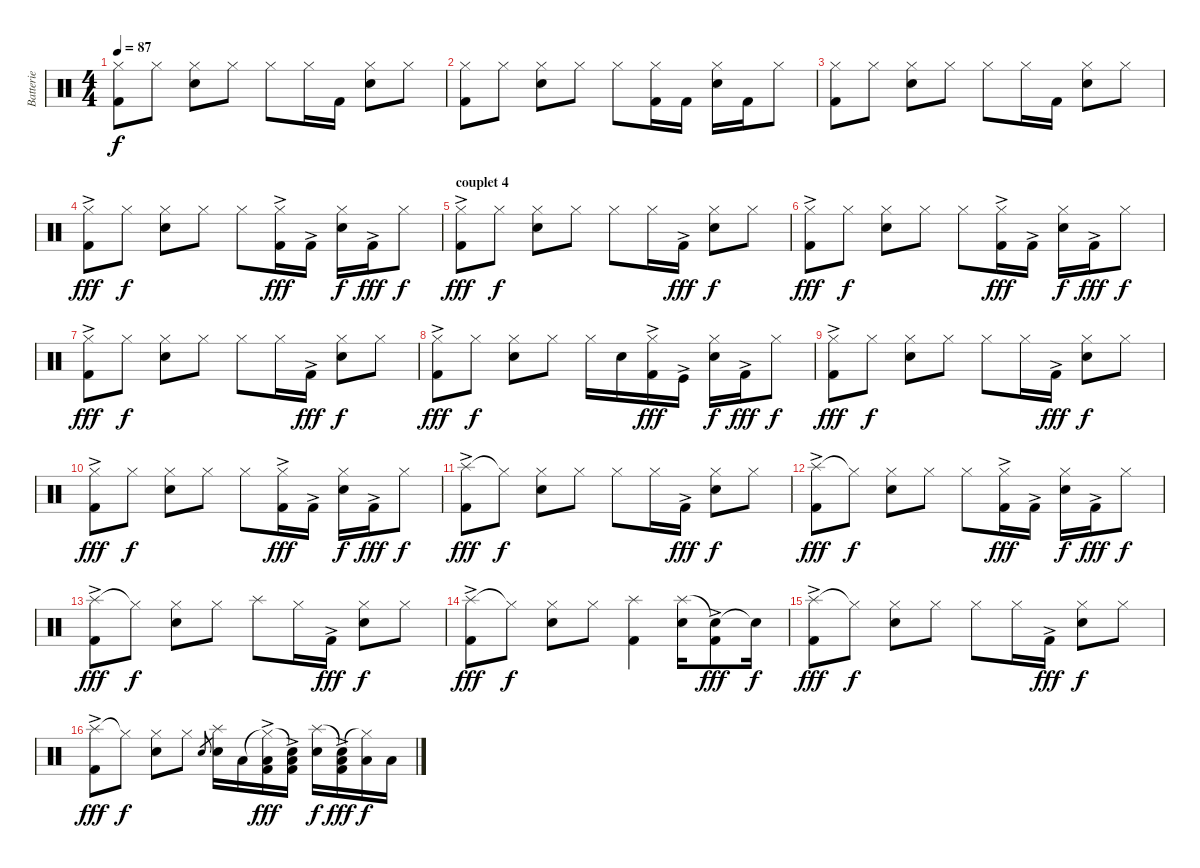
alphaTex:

\track ("Batterie" "Batterie") {instrument percussion}
\staff {score}
\articulation defaults
\ts (4 4)
\tempo 87
\clef neutral
\ks c
("Hi-Hat (closed)" "Kick (hit) 2").8{dy f} "Hi-Hat (closed)".8 ("Hi-Hat (closed)" "Snare (hit) 2").8 "Hi-Hat (closed)".8 "Hi-Hat (closed)".8 "Hi-Hat (closed)".16 "Kick (hit) 2".16 ("Hi-Hat (closed)" "Snare (hit) 2").8 "Hi-Hat (closed)".8 |
("Hi-Hat (closed)" "Kick (hit) 2").8 "Hi-Hat (closed)".8 ("Hi-Hat (closed)" "Snare (hit) 2").8 "Hi-Hat (closed)".8 "Hi-Hat (closed)".8 ("Hi-Hat (closed)" "Kick (hit) 2").16 "Kick (hit) 2".16 ("Hi-Hat (closed)" "Snare (hit) 2").16 "Kick (hit) 2".16 "Hi-Hat (closed)".8 |
("Hi-Hat (closed)" "Kick (hit) 2").8 "Hi-Hat (closed)".8 ("Hi-Hat (closed)" "Snare (hit) 2").8 "Hi-Hat (closed)".8 "Hi-Hat (closed)".8 "Hi-Hat (closed)".16 "Kick (hit) 2".16 ("Hi-Hat (closed)" "Snare (hit) 2").8 "Hi-Hat (closed)".8 |
("Hi-Hat (closed)" "Kick (hit) 2"{ac}).8{dy fff} "Hi-Hat (closed)".8{dy f} ("Hi-Hat (closed)" "Snare (hit) 2").8 "Hi-Hat (closed)".8 "Hi-Hat (closed)".8 ("Hi-Hat (closed)" "Kick (hit) 2"{ac}).16{dy fff} "Kick (hit) 2"{ac}.16 ("Hi-Hat (closed)" "Snare (hit) 2").16{dy f} "Kick (hit) 2"{ac}.16{dy fff} "Hi-Hat (closed)".8{dy f} |
\section ("" "couplet 4")
("Hi-Hat (closed)" "Kick (hit) 2"{ac}).8{dy fff} "Hi-Hat (closed)".8{dy f} ("Hi-Hat (closed)" "Snare (hit) 2").8 "Hi-Hat (closed)".8 "Hi-Hat (closed)".8 "Hi-Hat (closed)".16 "Kick (hit) 2"{ac}.16{dy fff} ("Hi-Hat (closed)" "Snare (hit) 2").8{dy f} "Hi-Hat (closed)".8 |
("Hi-Hat (closed)" "Kick (hit) 2"{ac}).8{dy fff} "Hi-Hat (closed)".8{dy f} ("Hi-Hat (closed)" "Snare (hit) 2").8 "Hi-Hat (closed)".8 "Hi-Hat (closed)".8 ("Hi-Hat (closed)" "Kick (hit) 2"{ac}).16{dy fff} "Kick (hit) 2"{ac}.16 ("Hi-Hat (closed)" "Snare (hit) 2").16{dy f} "Kick (hit) 2"{ac}.16{dy fff} "Hi-Hat (closed)".8{dy f} |
("Hi-Hat (closed)" "Kick (hit) 2"{ac}).8{dy fff} "Hi-Hat (closed)".8{dy f} ("Hi-Hat (closed)" "Snare (hit) 2").8 "Hi-Hat (closed)".8 "Hi-Hat (closed)".8 "Hi-Hat (closed)".16 "Kick (hit) 2"{ac}.16{dy fff} ("Hi-Hat (closed)" "Snare (hit) 2").8{dy f} "Hi-Hat (closed)".8 |
("Hi-Hat (closed)" "Kick (hit) 2"{ac}).8{dy fff} "Hi-Hat (closed)".8{dy f} ("Hi-Hat (closed)" "Snare (hit) 2").8 "Hi-Hat (closed)".8 "Hi-Hat (closed)".16 "Snare (hit) 2".16 ("Hi-Hat (closed)" "Kick (hit) 2"{ac}).16{dy fff} "Kick (hit)"{ac}.16 ("Hi-Hat (closed)" "Snare (hit) 2").16{dy f} "Kick (hit) 2"{ac}.16{dy fff} "Hi-Hat (closed)".8{dy f} |
("Hi-Hat (closed)" "Kick (hit) 2"{ac}).8{dy fff} "Hi-Hat (closed)".8{dy f} ("Hi-Hat (closed)" "Snare (hit) 2").8 "Hi-Hat (closed)".8 "Hi-Hat (closed)".8 "Hi-Hat (closed)".16 "Kick (hit) 2"{ac}.16{dy fff} ("Hi-Hat (closed)" "Snare (hit) 2").8{dy f} "Hi-Hat (closed)".8 |
("Hi-Hat (closed)" "Kick (hit) 2"{ac}).8{dy fff} "Hi-Hat (closed)".8{dy f} ("Hi-Hat (closed)" "Snare (hit) 2").8 "Hi-Hat (closed)".8 "Hi-Hat (closed)".8 ("Hi-Hat (closed)" "Kick (hit) 2"{ac}).16{dy fff} "Kick (hit) 2"{ac}.16 ("Hi-Hat (closed)" "Snare (hit) 2").16{dy f} "Kick (hit) 2"{ac}.16{dy fff} "Hi-Hat (closed)".8{dy f} |
("Splash (hit)" "Kick (hit) 2"{ac}).8{dy fff} "Hi-Hat (closed)"{t}.8{dy f} ("Hi-Hat (closed)" "Snare (hit) 2").8 "Hi-Hat (closed)".8 "Hi-Hat (closed)".8 "Hi-Hat (closed)".16 "Kick (hit) 2"{ac}.16{dy fff} ("Hi-Hat (closed)" "Snare (hit) 2").8{dy f} "Hi-Hat (closed)".8 |
("Splash (hit)" "Kick (hit) 2"{ac}).8{dy fff} "Hi-Hat (closed)"{t}.8{dy f} ("Hi-Hat (closed)" "Snare (hit) 2").8 "Hi-Hat (closed)".8 "Hi-Hat (closed)".8 ("Hi-Hat (closed)" "Kick (hit) 2"{ac}).16{dy fff} "Kick (hit) 2"{ac}.16 ("Hi-Hat (closed)" "Snare (hit) 2").16{dy f} "Kick (hit) 2"{ac}.16{dy fff} "Hi-Hat (closed)".8{dy f} |
("Splash (hit)" "Kick (hit) 2"{ac}).8{dy fff} "Hi-Hat (closed)"{t}.8{dy f} ("Hi-Hat (closed)" "Snare (hit) 2").8 "Hi-Hat (closed)".8 "Splash (hit)".8 "Hi-Hat (closed)".16 "Kick (hit) 2"{ac}.16{dy fff} ("Hi-Hat (closed)" "Snare (hit) 2").8{dy f} "Hi-Hat (closed)".8 |
("Splash (hit)" "Kick (hit) 2"{ac}).8{dy fff} "Hi-Hat (closed)"{t}.8{dy f} ("Hi-Hat (closed)" "Snare (hit) 2").8 "Hi-Hat (closed)".8 ("Splash (hit)" "Kick (hit) 2").4 ("Splash (hit)" "Snare (hit) 2").16 ("Snare (hit)"{t} "Kick (hit) 2"{ac}).8{dy fff} "Snare (hit)"{t}.16{dy f} |
("Splash (hit)" "Kick (hit) 2"{ac}).8{dy fff} "Hi-Hat (closed)"{t}.8{dy f} ("Hi-Hat (closed)" "Snare (hit) 2").8 "Hi-Hat (closed)".8 "Hi-Hat (closed)".8 "Hi-Hat (closed)".16 "Kick (hit) 2"{ac}.16{dy fff} ("Hi-Hat (closed)" "Snare (hit) 2").8{dy f} "Hi-Hat (closed)".8 |
("Splash (hit)" "Kick (hit) 2"{ac}).8{dy fff} "Hi-Hat (closed)"{t}.8{dy f} ("Hi-Hat (closed)" "Snare (hit) 2").8 "Hi-Hat (closed)".8 "Snare (hit) 2".8{gr} ("Splash (hit)" "Snare (hit) 2").16 "Low Floor Tom (hit)".16 ("Hi-Hat (closed)"{t} "Low Floor Tom (hit)" "Kick (hit) 2"{ac}).16{dy fff} ("Snare (hit)"{t} "Low Floor Tom (hit)" "Kick (hit) 2"{ac}).16 ("Splash (hit)" "Snare (hit) 2").16{dy f} ("Snare (hit)"{t} "Low Floor Tom (hit)" "Kick (hit) 2"{ac}).16{dy fff} ("Hi-Hat (closed)"{t} "Low Floor Tom (hit)").16{dy f} "Low Floor Tom (hit)".16
